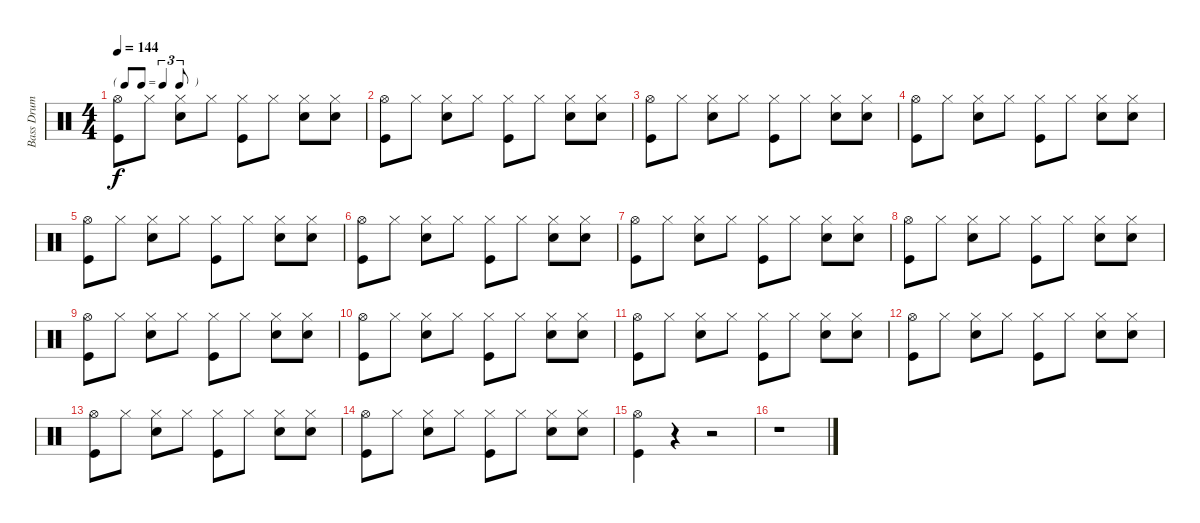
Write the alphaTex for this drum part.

\track ("Bass Drum           " "Bass Drum ") {instrument percussion}
\staff {score}
\articulation defaults
\ts (4 4)
\tf triplet8th
\tempo 144
\clef neutral
\ks c
("Kick (hit)" "Hi-Hat (open)").8{dy f} "Hi-Hat (closed)".8 ("Snare (hit) 2" "Hi-Hat (closed)").8 "Hi-Hat (closed)".8 ("Kick (hit)" "Hi-Hat (closed)").8 "Hi-Hat (closed)".8 ("Snare (hit) 2" "Hi-Hat (closed)").8 ("Snare (hit) 2" "Hi-Hat (closed)").8 |
("Kick (hit)" "Hi-Hat (open)").8 "Hi-Hat (closed)".8 ("Snare (hit) 2" "Hi-Hat (closed)").8 "Hi-Hat (closed)".8 ("Kick (hit)" "Hi-Hat (closed)").8 "Hi-Hat (closed)".8 ("Snare (hit) 2" "Hi-Hat (closed)").8 ("Snare (hit) 2" "Hi-Hat (closed)").8 |
("Kick (hit)" "Hi-Hat (open)").8 "Hi-Hat (closed)".8 ("Snare (hit) 2" "Hi-Hat (closed)").8 "Hi-Hat (closed)".8 ("Kick (hit)" "Hi-Hat (closed)").8 "Hi-Hat (closed)".8 ("Snare (hit) 2" "Hi-Hat (closed)").8 ("Snare (hit) 2" "Hi-Hat (closed)").8 |
("Kick (hit)" "Hi-Hat (open)").8 "Hi-Hat (closed)".8 ("Snare (hit) 2" "Hi-Hat (closed)").8 "Hi-Hat (closed)".8 ("Kick (hit)" "Hi-Hat (closed)").8 "Hi-Hat (closed)".8 ("Snare (hit) 2" "Hi-Hat (closed)").8 ("Snare (hit) 2" "Hi-Hat (closed)").8 |
("Kick (hit)" "Hi-Hat (open)").8 "Hi-Hat (closed)".8 ("Snare (hit) 2" "Hi-Hat (closed)").8 "Hi-Hat (closed)".8 ("Kick (hit)" "Hi-Hat (closed)").8 "Hi-Hat (closed)".8 ("Snare (hit) 2" "Hi-Hat (closed)").8 ("Snare (hit) 2" "Hi-Hat (closed)").8 |
("Kick (hit)" "Hi-Hat (open)").8 "Hi-Hat (closed)".8 ("Snare (hit) 2" "Hi-Hat (closed)").8 "Hi-Hat (closed)".8 ("Kick (hit)" "Hi-Hat (closed)").8 "Hi-Hat (closed)".8 ("Snare (hit) 2" "Hi-Hat (closed)").8 ("Snare (hit) 2" "Hi-Hat (closed)").8 |
("Kick (hit)" "Hi-Hat (open)").8 "Hi-Hat (closed)".8 ("Snare (hit) 2" "Hi-Hat (closed)").8 "Hi-Hat (closed)".8 ("Kick (hit)" "Hi-Hat (closed)").8 "Hi-Hat (closed)".8 ("Snare (hit) 2" "Hi-Hat (closed)").8 ("Snare (hit) 2" "Hi-Hat (closed)").8 |
("Kick (hit)" "Hi-Hat (open)").8 "Hi-Hat (closed)".8 ("Snare (hit) 2" "Hi-Hat (closed)").8 "Hi-Hat (closed)".8 ("Kick (hit)" "Hi-Hat (closed)").8 "Hi-Hat (closed)".8 ("Snare (hit) 2" "Hi-Hat (closed)").8 ("Snare (hit) 2" "Hi-Hat (closed)").8 |
("Kick (hit)" "Hi-Hat (open)").8 "Hi-Hat (closed)".8 ("Snare (hit) 2" "Hi-Hat (closed)").8 "Hi-Hat (closed)".8 ("Kick (hit)" "Hi-Hat (closed)").8 "Hi-Hat (closed)".8 ("Snare (hit) 2" "Hi-Hat (closed)").8 ("Snare (hit) 2" "Hi-Hat (closed)").8 |
("Kick (hit)" "Hi-Hat (open)").8 "Hi-Hat (closed)".8 ("Snare (hit) 2" "Hi-Hat (closed)").8 "Hi-Hat (closed)".8 ("Kick (hit)" "Hi-Hat (closed)").8 "Hi-Hat (closed)".8 ("Snare (hit) 2" "Hi-Hat (closed)").8 ("Snare (hit) 2" "Hi-Hat (closed)").8 |
("Kick (hit)" "Hi-Hat (open)").8 "Hi-Hat (closed)".8 ("Snare (hit) 2" "Hi-Hat (closed)").8 "Hi-Hat (closed)".8 ("Kick (hit)" "Hi-Hat (closed)").8 "Hi-Hat (closed)".8 ("Snare (hit) 2" "Hi-Hat (closed)").8 ("Snare (hit) 2" "Hi-Hat (closed)").8 |
("Kick (hit)" "Hi-Hat (open)").8 "Hi-Hat (closed)".8 ("Snare (hit) 2" "Hi-Hat (closed)").8 "Hi-Hat (closed)".8 ("Kick (hit)" "Hi-Hat (closed)").8 "Hi-Hat (closed)".8 ("Snare (hit) 2" "Hi-Hat (closed)").8 ("Snare (hit) 2" "Hi-Hat (closed)").8 |
("Kick (hit)" "Hi-Hat (open)").8 "Hi-Hat (closed)".8 ("Snare (hit) 2" "Hi-Hat (closed)").8 "Hi-Hat (closed)".8 ("Kick (hit)" "Hi-Hat (closed)").8 "Hi-Hat (closed)".8 ("Snare (hit) 2" "Hi-Hat (closed)").8 ("Snare (hit) 2" "Hi-Hat (closed)").8 |
("Kick (hit)" "Hi-Hat (open)").8 "Hi-Hat (closed)".8 ("Snare (hit) 2" "Hi-Hat (closed)").8 "Hi-Hat (closed)".8 ("Kick (hit)" "Hi-Hat (closed)").8 "Hi-Hat (closed)".8 ("Snare (hit) 2" "Hi-Hat (closed)").8 ("Snare (hit) 2" "Hi-Hat (closed)").8 |
("Kick (hit)" "Hi-Hat (open)").4 r.4 r.2 |
r.1
